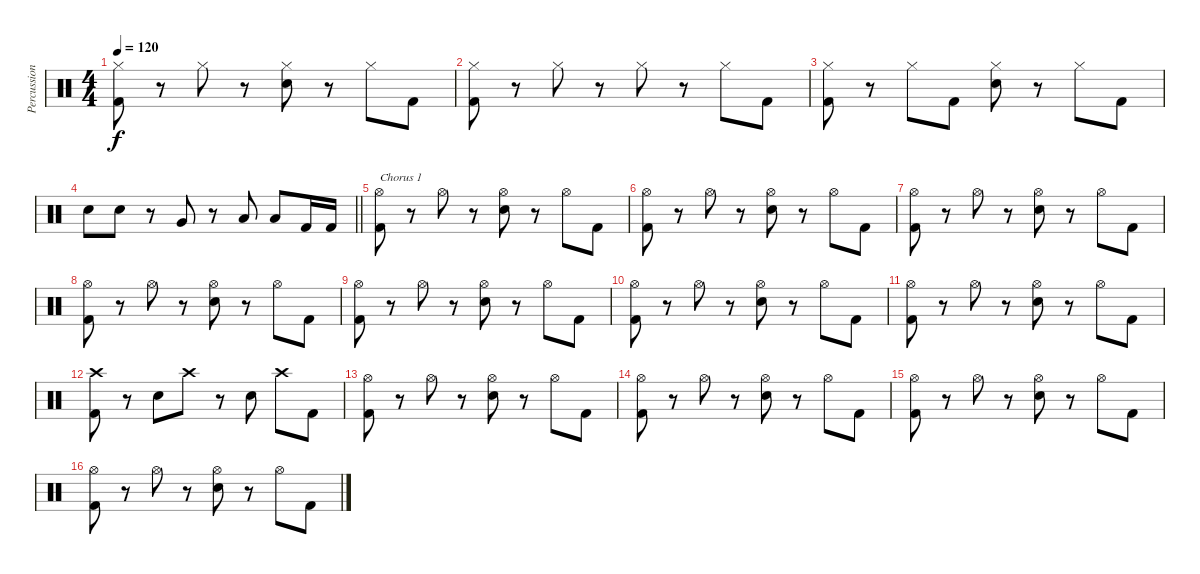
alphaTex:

\track ("Percussion" "Percussion") {instrument percussion}
\staff {score}
\articulation defaults
\ts (4 4)
\tempo 120
\clef neutral
\ks c
("Hi-Hat (closed)" "Kick (hit) 2").8{dy f} r.8 "Hi-Hat (closed)".8 r.8 ("Hi-Hat (closed)" "Snare (hit) 2").8 r.8 "Hi-Hat (closed)".8 "Kick (hit) 2".8 |
("Hi-Hat (closed)" "Kick (hit) 2").8 r.8 "Hi-Hat (closed)".8 r.8 "Hi-Hat (closed)".8 r.8 "Hi-Hat (closed)".8 "Kick (hit) 2".8 |
("Hi-Hat (closed)" "Kick (hit) 2").8 r.8 "Hi-Hat (closed)".8 "Kick (hit) 2".8 ("Hi-Hat (closed)" "Snare (hit) 2").8 r.8 "Hi-Hat (closed)".8 "Kick (hit) 2".8 |
\barLineRight lightlight "Snare (hit) 2".8 "Snare (hit) 2".8
r.8 "Very Low Tom (hit)".8 r.8 "Low Floor Tom (hit)".8 "Low Floor Tom (hit)".8 "Kick (hit) 2".16 "Kick (hit) 2".16 |
("Hi-Hat (open)" "Kick (hit) 2").8{txt "Chorus 1"} r.8 "Hi-Hat (open)".8 r.8 ("Hi-Hat (open)" "Snare (hit) 2").8 r.8 "Hi-Hat (open)".8 "Kick (hit) 2".8 |
("Hi-Hat (open)" "Kick (hit) 2").8 r.8 "Hi-Hat (open)".8 r.8 ("Hi-Hat (open)" "Snare (hit) 2").8 r.8 "Hi-Hat (open)".8 "Kick (hit) 2".8 |
("Hi-Hat (open)" "Kick (hit) 2").8 r.8 "Hi-Hat (open)".8 r.8 ("Hi-Hat (open)" "Snare (hit) 2").8 r.8 "Hi-Hat (open)".8 "Kick (hit) 2".8 |
("Hi-Hat (open)" "Kick (hit) 2").8 r.8 "Hi-Hat (open)".8 r.8 ("Hi-Hat (open)" "Snare (hit) 2").8 r.8 "Hi-Hat (open)".8 "Kick (hit) 2".8 |
("Hi-Hat (open)" "Kick (hit) 2").8 r.8 "Hi-Hat (open)".8 r.8 ("Hi-Hat (open)" "Snare (hit) 2").8 r.8 "Hi-Hat (open)".8 "Kick (hit) 2".8 |
("Hi-Hat (open)" "Kick (hit) 2").8 r.8 "Hi-Hat (open)".8 r.8 ("Hi-Hat (open)" "Snare (hit) 2").8 r.8 "Hi-Hat (open)".8 "Kick (hit) 2".8 |
("Hi-Hat (open)" "Kick (hit) 2").8 r.8 "Hi-Hat (open)".8 r.8 ("Hi-Hat (open)" "Snare (hit) 2").8 r.8 "Hi-Hat (open)".8 "Kick (hit) 2".8 |
("Crash high (hit)" "Kick (hit) 2").8 r.8 "Snare (hit) 2".8 "Crash high (hit)".8 r.8 "Snare (hit) 2".8 "Crash high (hit)".8 "Kick (hit) 2".8 |
("Hi-Hat (open)" "Kick (hit) 2").8 r.8 "Hi-Hat (open)".8 r.8 ("Hi-Hat (open)" "Snare (hit) 2").8 r.8 "Hi-Hat (open)".8 "Kick (hit) 2".8 |
("Hi-Hat (open)" "Kick (hit) 2").8 r.8 "Hi-Hat (open)".8 r.8 ("Hi-Hat (open)" "Snare (hit) 2").8 r.8 "Hi-Hat (open)".8 "Kick (hit) 2".8 |
("Hi-Hat (open)" "Kick (hit) 2").8 r.8 "Hi-Hat (open)".8 r.8 ("Hi-Hat (open)" "Snare (hit) 2").8 r.8 "Hi-Hat (open)".8 "Kick (hit) 2".8 |
("Hi-Hat (open)" "Kick (hit) 2").8 r.8 "Hi-Hat (open)".8 r.8 ("Hi-Hat (open)" "Snare (hit) 2").8 r.8 "Hi-Hat (open)".8 "Kick (hit) 2".8
